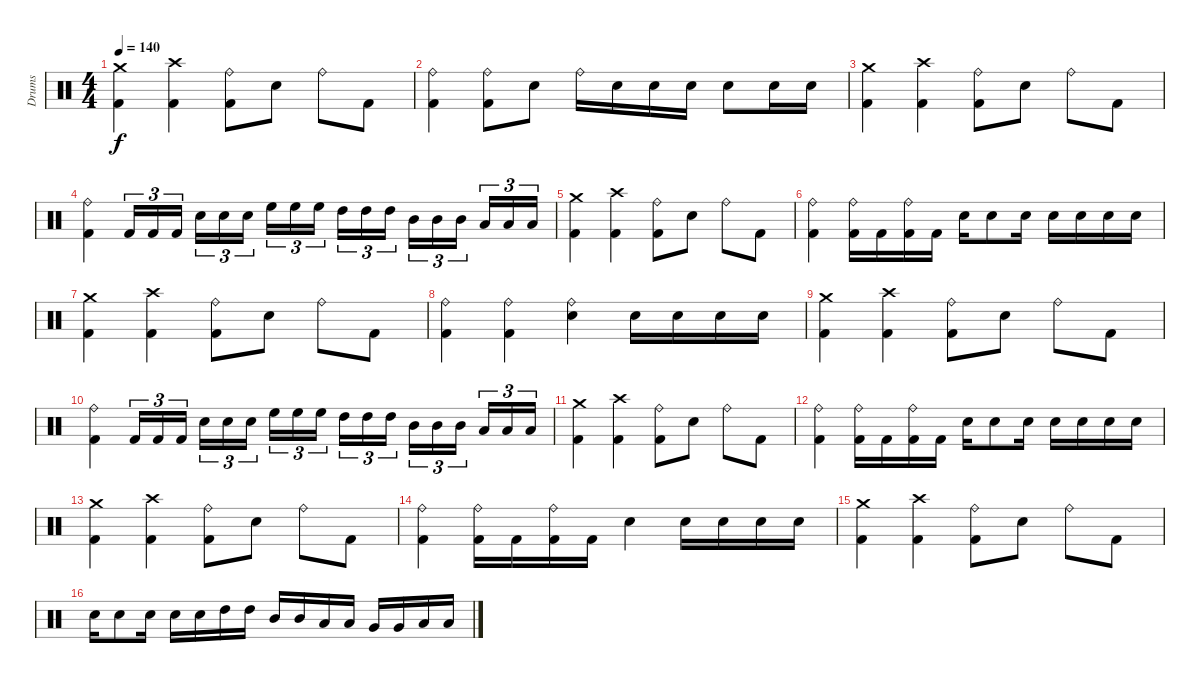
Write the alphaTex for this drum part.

\track ("Drums" "Drums") {instrument percussion}
\staff {score}
\articulation defaults
\ts (4 4)
\tempo 140
\clef neutral
\ks c
("Crash medium (hit)" "Kick (hit) 2").4{dy f} ("Crash high (hit)" "Kick (hit) 2").4 ("Ride (bell)" "Kick (hit) 2").8 "Electric Snare (hit)".8 "Ride (bell)".8 "Kick (hit) 2".8 |
("Ride (bell)" "Kick (hit) 2").4 ("Ride (bell)" "Kick (hit) 2").8 "Electric Snare (hit)".8 "Ride (bell)".16 "Electric Snare (hit)".16 "Electric Snare (hit)".16 "Electric Snare (hit)".16 "Electric Snare (hit)".8 "Electric Snare (hit)".16 "Electric Snare (hit)".16 |
("Crash medium (hit)" "Kick (hit) 2").4 ("Crash high (hit)" "Kick (hit) 2").4 ("Ride (bell)" "Kick (hit) 2").8 "Electric Snare (hit)".8 "Ride (bell)".8 "Kick (hit) 2".8 |
("Ride (bell)" "Kick (hit) 2").4 "Kick (hit) 2".16{tu (3 2)} "Kick (hit) 2".16{tu (3 2)} "Kick (hit) 2".16{tu (3 2)} "Electric Snare (hit)".16{tu (3 2)} "Electric Snare (hit)".16{tu (3 2)} "Electric Snare (hit)".16{tu (3 2)} "High Floor Tom (hit)".16{tu (3 2)} "High Floor Tom (hit)".16{tu (3 2)} "High Floor Tom (hit)".16{tu (3 2)} "High Tom (hit)".16{tu (3 2)} "High Tom (hit)".16{tu (3 2)} "High Tom (hit)".16{tu (3 2)} "Mid Tom (hit)".16{tu (3 2)} "Mid Tom (hit)".16{tu (3 2)} "Mid Tom (hit)".16{tu (3 2)} "Low Tom (hit)".16{tu (3 2)} "Low Tom (hit)".16{tu (3 2)} "Low Tom (hit)".16{tu (3 2)} |
("Crash medium (hit)" "Kick (hit) 2").4 ("Crash high (hit)" "Kick (hit) 2").4 ("Ride (bell)" "Kick (hit) 2").8 "Electric Snare (hit)".8 "Ride (bell)".8 "Kick (hit) 2".8 |
("Ride (bell)" "Kick (hit) 2").4 ("Ride (bell)" "Kick (hit) 2").16 "Kick (hit) 2".16 ("Ride (bell)" "Kick (hit) 2").16 "Kick (hit) 2".16 "Electric Snare (hit)".16 "Electric Snare (hit)".8 "Electric Snare (hit)".16 "Electric Snare (hit)".16 "Electric Snare (hit)".16 "Electric Snare (hit)".16 "Electric Snare (hit)".16 |
("Crash medium (hit)" "Kick (hit) 2").4 ("Crash high (hit)" "Kick (hit) 2").4 ("Ride (bell)" "Kick (hit) 2").8 "Electric Snare (hit)".8 "Ride (bell)".8 "Kick (hit) 2".8 |
("Ride (bell)" "Kick (hit) 2").4 ("Ride (bell)" "Kick (hit) 2").4 ("Ride (bell)" "Electric Snare (hit)").4 "Electric Snare (hit)".16 "Electric Snare (hit)".16 "Electric Snare (hit)".16 "Electric Snare (hit)".16 |
("Crash medium (hit)" "Kick (hit) 2").4 ("Crash high (hit)" "Kick (hit) 2").4 ("Ride (bell)" "Kick (hit) 2").8 "Electric Snare (hit)".8 "Ride (bell)".8 "Kick (hit) 2".8 |
("Ride (bell)" "Kick (hit) 2").4 "Kick (hit) 2".16{tu (3 2)} "Kick (hit) 2".16{tu (3 2)} "Kick (hit) 2".16{tu (3 2)} "Electric Snare (hit)".16{tu (3 2)} "Electric Snare (hit)".16{tu (3 2)} "Electric Snare (hit)".16{tu (3 2)} "High Floor Tom (hit)".16{tu (3 2)} "High Floor Tom (hit)".16{tu (3 2)} "High Floor Tom (hit)".16{tu (3 2)} "High Tom (hit)".16{tu (3 2)} "High Tom (hit)".16{tu (3 2)} "High Tom (hit)".16{tu (3 2)} "Mid Tom (hit)".16{tu (3 2)} "Mid Tom (hit)".16{tu (3 2)} "Mid Tom (hit)".16{tu (3 2)} "Low Tom (hit)".16{tu (3 2)} "Low Tom (hit)".16{tu (3 2)} "Low Tom (hit)".16{tu (3 2)} |
("Crash medium (hit)" "Kick (hit) 2").4 ("Crash high (hit)" "Kick (hit) 2").4 ("Ride (bell)" "Kick (hit) 2").8 "Electric Snare (hit)".8 "Ride (bell)".8 "Kick (hit) 2".8 |
("Ride (bell)" "Kick (hit) 2").4 ("Ride (bell)" "Kick (hit) 2").16 "Kick (hit) 2".16 ("Ride (bell)" "Kick (hit) 2").16 "Kick (hit) 2".16 "Electric Snare (hit)".16 "Electric Snare (hit)".8 "Electric Snare (hit)".16 "Electric Snare (hit)".16 "Electric Snare (hit)".16 "Electric Snare (hit)".16 "Electric Snare (hit)".16 |
("Crash medium (hit)" "Kick (hit) 2").4 ("Crash high (hit)" "Kick (hit) 2").4 ("Ride (bell)" "Kick (hit) 2").8 "Electric Snare (hit)".8 "Ride (bell)".8 "Kick (hit) 2".8 |
("Ride (bell)" "Kick (hit) 2").4 ("Ride (bell)" "Kick (hit) 2").16 "Kick (hit) 2".16 ("Ride (bell)" "Kick (hit) 2").16 "Kick (hit) 2".16 "Electric Snare (hit)".4 "Electric Snare (hit)".16 "Electric Snare (hit)".16 "Electric Snare (hit)".16 "Electric Snare (hit)".16 |
("Crash medium (hit)" "Kick (hit) 2").4 ("Crash high (hit)" "Kick (hit) 2").4 ("Ride (bell)" "Kick (hit) 2").8 "Electric Snare (hit)".8 "Ride (bell)".8 "Kick (hit) 2".8 |
"Electric Snare (hit)".16 "Electric Snare (hit)".8 "Electric Snare (hit)".16 "Electric Snare (hit)".16 "Electric Snare (hit)".16 "High Tom (hit)".16 "High Tom (hit)".16 "Mid Tom (hit)".16 "Mid Tom (hit)".16 "Low Tom (hit)".16 "Low Tom (hit)".16 "Very Low Tom (hit)".16 "Very Low Tom (hit)".16 "Low Floor Tom (hit)".16 "Low Floor Tom (hit)".16
